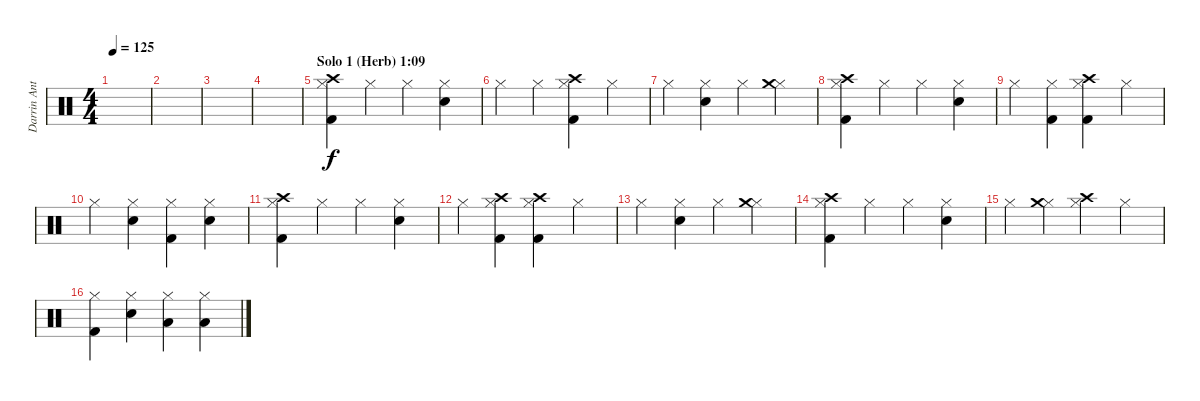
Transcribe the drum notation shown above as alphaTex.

\track ("Darrin Anthony (Drums)" "Darrin Ant") {instrument percussion}
\staff {score}
\articulation defaults
\ts (4 4)
\tempo 125
\clef neutral
\ks c
|
|
|
|
\section ("" "Solo 1 (Herb) 1:09")
("Kick (hit) 2" "Hi-Hat (closed)" "Crash high (hit)").4 "Hi-Hat (closed)".4 "Hi-Hat (closed)".4 ("Electric Snare (hit)" "Hi-Hat (closed)").4 |
"Hi-Hat (closed)".4 "Hi-Hat (closed)".4 ("Kick (hit) 2" "Hi-Hat (closed)" "Crash high (hit)").4 "Hi-Hat (closed)".4 |
"Hi-Hat (closed)".4 ("Electric Snare (hit)" "Hi-Hat (closed)").4 "Hi-Hat (closed)".4 ("Hi-Hat (closed)" "Crash medium (hit)").4 |
("Kick (hit) 2" "Hi-Hat (closed)" "Crash high (hit)").4 "Hi-Hat (closed)".4 "Hi-Hat (closed)".4 ("Electric Snare (hit)" "Hi-Hat (closed)").4 |
"Hi-Hat (closed)".4 ("Kick (hit) 2" "Hi-Hat (closed)").4 ("Kick (hit) 2" "Hi-Hat (closed)" "Crash high (hit)").4 "Hi-Hat (closed)".4 |
"Hi-Hat (closed)".4 ("Electric Snare (hit)" "Hi-Hat (closed)").4 ("Kick (hit) 2" "Hi-Hat (closed)").4 ("Electric Snare (hit)" "Hi-Hat (closed)").4 |
("Kick (hit) 2" "Hi-Hat (closed)" "Crash high (hit)").4 "Hi-Hat (closed)".4 "Hi-Hat (closed)".4 ("Electric Snare (hit)" "Hi-Hat (closed)").4 |
"Hi-Hat (closed)".4 ("Kick (hit) 2" "Hi-Hat (closed)" "Crash high (hit)").4 ("Kick (hit) 2" "Hi-Hat (closed)" "Crash high (hit)").4 "Hi-Hat (closed)".4 |
"Hi-Hat (closed)".4 ("Electric Snare (hit)" "Hi-Hat (closed)").4 "Hi-Hat (closed)".4 ("Hi-Hat (closed)" "Crash medium (hit)").4 |
("Kick (hit) 2" "Hi-Hat (closed)" "Crash high (hit)").4 "Hi-Hat (closed)".4 "Hi-Hat (closed)".4 ("Electric Snare (hit)" "Hi-Hat (closed)").4 |
"Hi-Hat (closed)".4 ("Hi-Hat (closed)" "Crash medium (hit)").4 ("Hi-Hat (closed)" "Crash high (hit)").4 "Hi-Hat (closed)".4 |
("Kick (hit) 2" "Hi-Hat (closed)").4 ("Electric Snare (hit)" "Hi-Hat (closed)").4 ("Low Tom (hit)" "Hi-Hat (closed)").4 ("Low Floor Tom (hit)" "Hi-Hat (closed)").4
